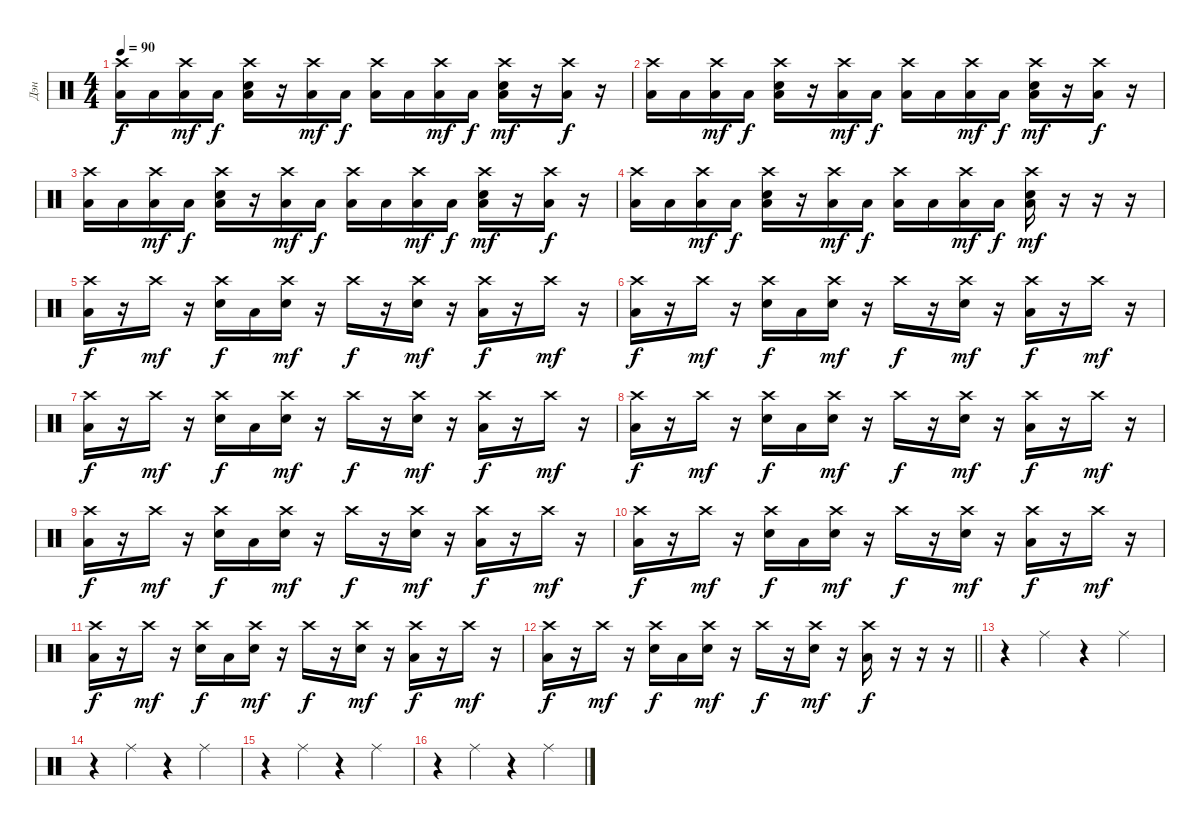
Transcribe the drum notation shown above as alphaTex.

\track ("Дэн" "Дэн") {instrument percussion}
\staff {score}
\articulation defaults
\ts (4 4)
\tempo 90
\clef neutral
\ks c
("Crash high (hit)" "Low Floor Tom (hit)").16{dy f} "Low Floor Tom (hit)".16 ("Crash high (hit)" "Low Floor Tom (hit)").16{dy mf} "Low Floor Tom (hit)".16{dy f} ("Crash high (hit)" "Low Floor Tom (hit)" "Electric Snare (hit)").16 r.16 ("Crash high (hit)" "Low Floor Tom (hit)").16{dy mf} "Low Floor Tom (hit)".16{dy f} ("Crash high (hit)" "Low Floor Tom (hit)").16 "Low Floor Tom (hit)".16 ("Crash high (hit)" "Low Floor Tom (hit)").16{dy mf} "Low Floor Tom (hit)".16{dy f} ("Crash high (hit)" "Low Floor Tom (hit)" "Electric Snare (hit)").16{dy mf} r.16 ("Low Floor Tom (hit)" "Crash high (hit)").16{dy f} r.16 |
("Crash high (hit)" "Low Floor Tom (hit)").16 "Low Floor Tom (hit)".16 ("Crash high (hit)" "Low Floor Tom (hit)").16{dy mf} "Low Floor Tom (hit)".16{dy f} ("Crash high (hit)" "Low Floor Tom (hit)" "Electric Snare (hit)").16 r.16 ("Crash high (hit)" "Low Floor Tom (hit)").16{dy mf} "Low Floor Tom (hit)".16{dy f} ("Crash high (hit)" "Low Floor Tom (hit)").16 "Low Floor Tom (hit)".16 ("Crash high (hit)" "Low Floor Tom (hit)").16{dy mf} "Low Floor Tom (hit)".16{dy f} ("Crash high (hit)" "Low Floor Tom (hit)" "Electric Snare (hit)").16{dy mf} r.16 ("Low Floor Tom (hit)" "Crash high (hit)").16{dy f} r.16 |
("Crash high (hit)" "Low Floor Tom (hit)").16 "Low Floor Tom (hit)".16 ("Crash high (hit)" "Low Floor Tom (hit)").16{dy mf} "Low Floor Tom (hit)".16{dy f} ("Crash high (hit)" "Low Floor Tom (hit)" "Electric Snare (hit)").16 r.16 ("Crash high (hit)" "Low Floor Tom (hit)").16{dy mf} "Low Floor Tom (hit)".16{dy f} ("Crash high (hit)" "Low Floor Tom (hit)").16 "Low Floor Tom (hit)".16 ("Crash high (hit)" "Low Floor Tom (hit)").16{dy mf} "Low Floor Tom (hit)".16{dy f} ("Crash high (hit)" "Low Floor Tom (hit)" "Electric Snare (hit)").16{dy mf} r.16 ("Low Floor Tom (hit)" "Crash high (hit)").16{dy f} r.16 |
("Crash high (hit)" "Low Floor Tom (hit)").16 "Low Floor Tom (hit)".16 ("Crash high (hit)" "Low Floor Tom (hit)").16{dy mf} "Low Floor Tom (hit)".16{dy f} ("Crash high (hit)" "Low Floor Tom (hit)" "Electric Snare (hit)").16 r.16 ("Crash high (hit)" "Low Floor Tom (hit)").16{dy mf} "Low Floor Tom (hit)".16{dy f} ("Crash high (hit)" "Low Floor Tom (hit)").16 "Low Floor Tom (hit)".16 ("Crash high (hit)" "Low Floor Tom (hit)").16{dy mf} "Low Floor Tom (hit)".16{dy f} ("Crash high (hit)" "Low Floor Tom (hit)" "Electric Snare (hit)").16{dy mf} r.16 r.16 r.16 |
("Crash high (hit)" "Low Floor Tom (hit)").16{dy f} r.16 "Crash high (hit)".16{dy mf} r.16 ("Crash high (hit)" "Electric Snare (hit)").16{dy f} "Low Floor Tom (hit)".16 ("Crash high (hit)" "Electric Snare (hit)").16{dy mf} r.16 "Crash high (hit)".16{dy f} r.16 ("Crash high (hit)" "Electric Snare (hit)").16{dy mf} r.16 ("Crash high (hit)" "Low Floor Tom (hit)").16{dy f} r.16 "Crash high (hit)".16{dy mf} r.16 |
("Crash high (hit)" "Low Floor Tom (hit)").16{dy f} r.16 "Crash high (hit)".16{dy mf} r.16 ("Crash high (hit)" "Electric Snare (hit)").16{dy f} "Low Floor Tom (hit)".16 ("Crash high (hit)" "Electric Snare (hit)").16{dy mf} r.16 "Crash high (hit)".16{dy f} r.16 ("Crash high (hit)" "Electric Snare (hit)").16{dy mf} r.16 ("Crash high (hit)" "Low Floor Tom (hit)").16{dy f} r.16 "Crash high (hit)".16{dy mf} r.16 |
("Crash high (hit)" "Low Floor Tom (hit)").16{dy f} r.16 "Crash high (hit)".16{dy mf} r.16 ("Crash high (hit)" "Electric Snare (hit)").16{dy f} "Low Floor Tom (hit)".16 ("Crash high (hit)" "Electric Snare (hit)").16{dy mf} r.16 "Crash high (hit)".16{dy f} r.16 ("Crash high (hit)" "Electric Snare (hit)").16{dy mf} r.16 ("Crash high (hit)" "Low Floor Tom (hit)").16{dy f} r.16 "Crash high (hit)".16{dy mf} r.16 |
("Crash high (hit)" "Low Floor Tom (hit)").16{dy f} r.16 "Crash high (hit)".16{dy mf} r.16 ("Crash high (hit)" "Electric Snare (hit)").16{dy f} "Low Floor Tom (hit)".16 ("Crash high (hit)" "Electric Snare (hit)").16{dy mf} r.16 "Crash high (hit)".16{dy f} r.16 ("Crash high (hit)" "Electric Snare (hit)").16{dy mf} r.16 ("Crash high (hit)" "Low Floor Tom (hit)").16{dy f} r.16 "Crash high (hit)".16{dy mf} r.16 |
("Crash high (hit)" "Low Floor Tom (hit)").16{dy f} r.16 "Crash high (hit)".16{dy mf} r.16 ("Crash high (hit)" "Electric Snare (hit)").16{dy f} "Low Floor Tom (hit)".16 ("Crash high (hit)" "Electric Snare (hit)").16{dy mf} r.16 "Crash high (hit)".16{dy f} r.16 ("Crash high (hit)" "Electric Snare (hit)").16{dy mf} r.16 ("Crash high (hit)" "Low Floor Tom (hit)").16{dy f} r.16 "Crash high (hit)".16{dy mf} r.16 |
("Crash high (hit)" "Low Floor Tom (hit)").16{dy f} r.16 "Crash high (hit)".16{dy mf} r.16 ("Crash high (hit)" "Electric Snare (hit)").16{dy f} "Low Floor Tom (hit)".16 ("Crash high (hit)" "Electric Snare (hit)").16{dy mf} r.16 "Crash high (hit)".16{dy f} r.16 ("Crash high (hit)" "Electric Snare (hit)").16{dy mf} r.16 ("Crash high (hit)" "Low Floor Tom (hit)").16{dy f} r.16 "Crash high (hit)".16{dy mf} r.16 |
("Crash high (hit)" "Low Floor Tom (hit)").16{dy f} r.16 "Crash high (hit)".16{dy mf} r.16 ("Crash high (hit)" "Electric Snare (hit)").16{dy f} "Low Floor Tom (hit)".16 ("Crash high (hit)" "Electric Snare (hit)").16{dy mf} r.16 "Crash high (hit)".16{dy f} r.16 ("Crash high (hit)" "Electric Snare (hit)").16{dy mf} r.16 ("Crash high (hit)" "Low Floor Tom (hit)").16{dy f} r.16 "Crash high (hit)".16{dy mf} r.16 |
\barLineRight lightlight
("Crash high (hit)" "Low Floor Tom (hit)").16{dy f} r.16 "Crash high (hit)".16{dy mf} r.16 ("Crash high (hit)" "Electric Snare (hit)").16{dy f} "Low Floor Tom (hit)".16 ("Crash high (hit)" "Electric Snare (hit)").16{dy mf} r.16 "Crash high (hit)".16{dy f} r.16 ("Crash high (hit)" "Electric Snare (hit)").16{dy mf} r.16 ("Crash high (hit)" "Low Floor Tom (hit)").16{dy f} r.16 r.16 r.16 |
r.4 "Ride (middle)".4 r.4 "Ride (middle)".4 |
r.4 "Ride (middle)".4 r.4 "Ride (middle)".4 |
r.4 "Ride (middle)".4 r.4 "Ride (middle)".4 |
r.4 "Ride (middle)".4 r.4 "Ride (middle)".4
